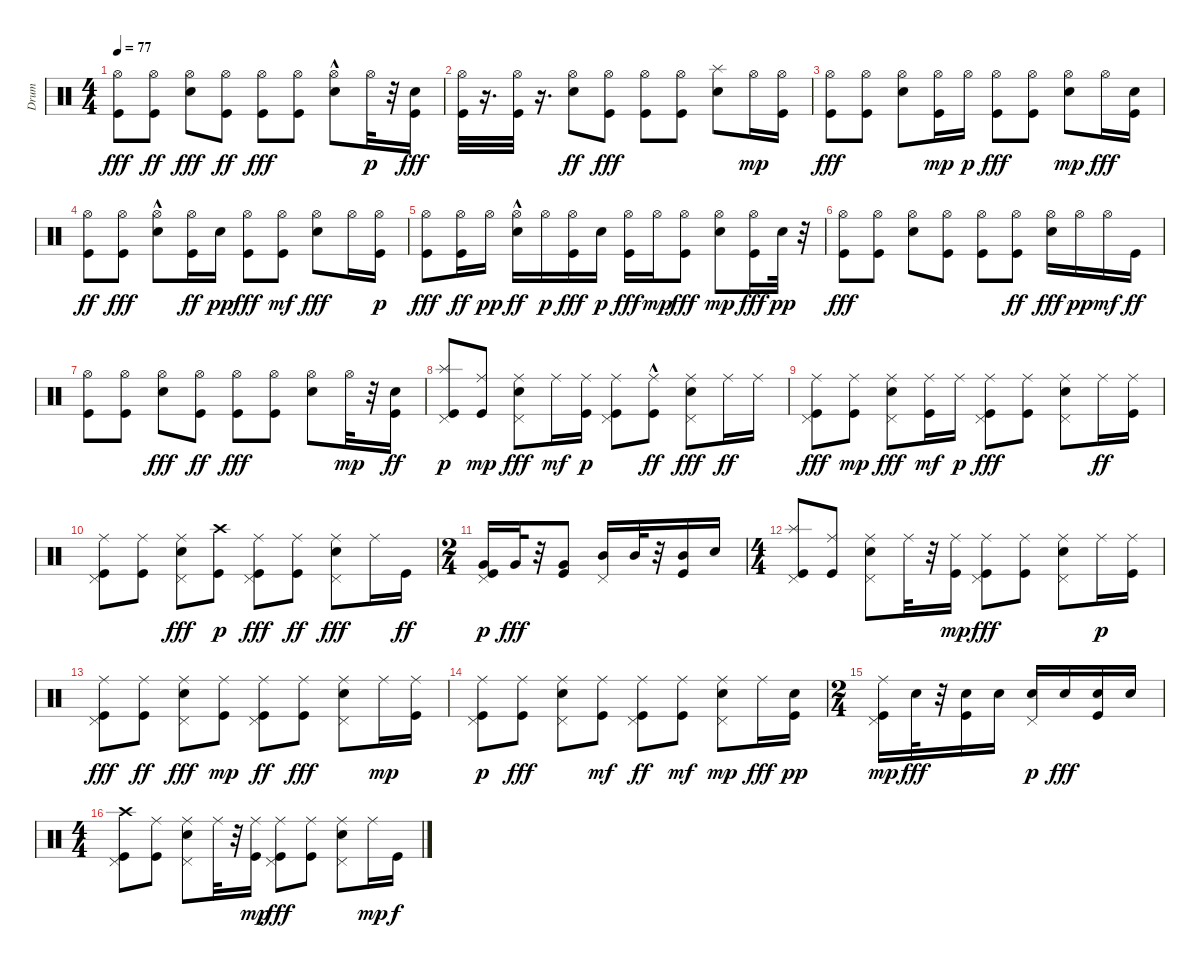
\track ("Drum" "Drum") {instrument percussion}
\staff {score}
\articulation defaults
\ts (4 4)
\tempo 77
\clef neutral
\ks c
("Kick (hit)" "Hi-Hat (open)").8{dy fff} ("Kick (hit)" "Hi-Hat (open)").8{dy ff} ("Snare (hit) 2" "Hi-Hat (open)").8{dy fff} ("Kick (hit)" "Hi-Hat (open)").8{dy ff} ("Kick (hit)" "Hi-Hat (open)").8{dy fff} ("Kick (hit)" "Hi-Hat (open)").8 ("Snare (hit) 2"{hac} "Hi-Hat (open)").8 "Hi-Hat (open)".32{dy p} r.32 ("Kick (hit)" "Snare (hit) 2").16{dy fff} |
("Kick (hit)" "Hi-Hat (open)").32 r.16{d} ("Kick (hit)" "Hi-Hat (open)").32 r.16{d} ("Snare (hit) 2" "Hi-Hat (open)").8{dy ff} ("Kick (hit)" "Hi-Hat (open)").8{dy fff} ("Kick (hit)" "Hi-Hat (open)").8 ("Kick (hit)" "Hi-Hat (open)").8 ("Snare (hit) 2" "Splash (hit)").8 "Hi-Hat (open)".16{dy mp} ("Kick (hit)" "Hi-Hat (open)").16 |
("Kick (hit)" "Hi-Hat (open)").8{dy fff} ("Kick (hit)" "Hi-Hat (open)").8 ("Snare (hit) 2" "Hi-Hat (open)").8 ("Kick (hit)" "Hi-Hat (open)").16{dy mp} "Hi-Hat (open)".16{dy p} ("Kick (hit)" "Hi-Hat (open)").8{dy fff} ("Kick (hit)" "Hi-Hat (open)").8 ("Snare (hit) 2" "Hi-Hat (open)").8{dy mp} "Hi-Hat (open)".16{dy fff} ("Kick (hit)" "Snare (hit) 2").16 |
("Kick (hit)" "Hi-Hat (open)").8{dy ff} ("Kick (hit)" "Hi-Hat (open)").8{dy fff} ("Snare (hit) 2"{hac} "Hi-Hat (open)").8 ("Kick (hit)" "Hi-Hat (open)").16{dy ff} "Snare (hit) 2".16{dy pp} ("Kick (hit)" "Hi-Hat (open)").8{dy fff} ("Kick (hit)" "Hi-Hat (open)").8{dy mf} ("Snare (hit) 2" "Hi-Hat (open)").8{dy fff} "Hi-Hat (open)".16 ("Kick (hit)" "Hi-Hat (open)").16{dy p} |
("Kick (hit)" "Hi-Hat (open)").8{dy fff} ("Kick (hit)" "Hi-Hat (open)").16{dy ff} "Hi-Hat (open)".16{dy pp} ("Snare (hit) 2"{hac} "Hi-Hat (open)").16{dy ff} "Hi-Hat (open)".16{dy p} ("Kick (hit)" "Hi-Hat (open)").16{dy fff} "Snare (hit) 2".16{dy p} ("Kick (hit)" "Hi-Hat (open)").16{dy fff} "Hi-Hat (open)".16{dy mp} ("Kick (hit)" "Hi-Hat (open)").8{dy fff} ("Snare (hit) 2" "Hi-Hat (open)").8{dy mp} ("Kick (hit)" "Hi-Hat (open)").16{dy fff} "Snare (hit) 2".32{dy pp} r.32 |
("Kick (hit)" "Hi-Hat (open)").8{dy fff} ("Kick (hit)" "Hi-Hat (open)").8 ("Snare (hit) 2" "Hi-Hat (open)").8 ("Kick (hit)" "Hi-Hat (open)").8 ("Kick (hit)" "Hi-Hat (open)").8 ("Kick (hit)" "Hi-Hat (open)").8{dy ff} ("Snare (hit) 2" "Hi-Hat (open)").16{dy fff} "Hi-Hat (open)".16{dy pp} "Hi-Hat (open)".16{dy mf} "Kick (hit)".16{dy ff} |
("Kick (hit)" "Hi-Hat (open)").8 ("Kick (hit)" "Hi-Hat (open)").8 ("Snare (hit) 2" "Hi-Hat (open)").8{dy fff} ("Kick (hit)" "Hi-Hat (open)").8{dy ff} ("Kick (hit)" "Hi-Hat (open)").8{dy fff} ("Kick (hit)" "Hi-Hat (open)").8 ("Snare (hit) 2" "Hi-Hat (open)").8 "Hi-Hat (open)".32{dy mp} r.32 ("Kick (hit)" "Snare (hit) 2").16{dy ff} |
("Kick (hit)" "Splash (hit)" "Pedal Hi-Hat (hit)").8{dy p} ("Kick (hit)" "Ride (middle)").8{dy mp} ("Ride (middle)" "Pedal Hi-Hat (hit)" "Snare (hit) 2").8{dy fff} "Ride (middle)".16{dy mf} ("Kick (hit)" "Ride (middle)").16{dy p} ("Kick (hit)" "Ride (middle)" "Pedal Hi-Hat (hit)").8 ("Kick (hit)"{hac} "Ride (middle)").8{dy ff} ("Ride (middle)" "Pedal Hi-Hat (hit)" "Snare (hit) 2").8{dy fff} "Ride (middle)".16{dy ff} "Ride (middle)".16 |
("Kick (hit)" "Pedal Hi-Hat (hit)" "Ride (middle)").8{dy fff} ("Kick (hit)" "Ride (middle)").8{dy mp} ("Snare (hit) 2" "Pedal Hi-Hat (hit)" "Ride (middle)").8{dy fff} ("Kick (hit)" "Ride (middle)").16{dy mf} "Ride (middle)".16{dy p} ("Kick (hit)" "Pedal Hi-Hat (hit)" "Ride (middle)").8{dy fff} ("Kick (hit)" "Ride (middle)").8 ("Snare (hit) 2" "Pedal Hi-Hat (hit)" "Ride (middle)").8 "Ride (middle)".16{dy ff} ("Kick (hit)" "Ride (middle)").16 |
("Kick (hit)" "Pedal Hi-Hat (hit)" "Ride (middle)").8 ("Kick (hit)" "Ride (middle)").8 ("Snare (hit) 2" "Pedal Hi-Hat (hit)" "Ride (middle)").8{dy fff} ("Kick (hit)" "Crash high (hit)").8{dy p} ("Kick (hit)" "Pedal Hi-Hat (hit)" "Ride (middle)").8{dy fff} ("Kick (hit)" "Ride (middle)").8{dy ff} ("Snare (hit) 2" "Pedal Hi-Hat (hit)" "Ride (middle)").8{dy fff} "Ride (middle)".16 "Kick (hit)".16{dy ff} |
\ts (2 4)
("Kick (hit)" "Very Low Tom (hit)" "Pedal Hi-Hat (hit)").16{dy p} "Very Low Tom (hit)".32{dy fff} r.32 ("Kick (hit)" "Very Low Tom (hit)").8 ("Pedal Hi-Hat (hit)" "Mid Tom (hit)").16 "Mid Tom (hit)".32 r.32 ("Kick (hit)" "Mid Tom (hit)").16 "Snare (hit) 2".16 |
\ts (4 4)
("Kick (hit)" "Pedal Hi-Hat (hit)" "Splash (hit)").8 ("Kick (hit)" "Ride (middle)").8 ("Snare (hit) 2" "Pedal Hi-Hat (hit)" "Ride (middle)").8 "Ride (middle)".32 r.32 ("Kick (hit)" "Ride (middle)").16{dy mp} ("Kick (hit)" "Pedal Hi-Hat (hit)" "Ride (middle)").8{dy fff} ("Kick (hit)" "Ride (middle)").8 ("Snare (hit) 2" "Pedal Hi-Hat (hit)" "Ride (middle)").8 "Ride (middle)".16{dy p} ("Kick (hit)" "Ride (middle)").16 |
("Kick (hit)" "Pedal Hi-Hat (hit)" "Ride (middle)").8{dy fff} ("Kick (hit)" "Ride (middle)").8{dy ff} ("Snare (hit) 2" "Pedal Hi-Hat (hit)" "Ride (middle)").8{dy fff} ("Kick (hit)" "Ride (middle)").8{dy mp} ("Kick (hit)" "Pedal Hi-Hat (hit)" "Ride (middle)").8{dy ff} ("Kick (hit)" "Ride (middle)").8{dy fff} ("Snare (hit) 2" "Pedal Hi-Hat (hit)" "Ride (middle)").8 "Ride (middle)".16{dy mp} ("Kick (hit)" "Ride (middle)").16 |
("Kick (hit)" "Pedal Hi-Hat (hit)" "Ride (middle)").8{dy p} ("Kick (hit)" "Ride (middle)").8{dy fff} ("Snare (hit) 2" "Pedal Hi-Hat (hit)" "Ride (middle)").8 ("Kick (hit)" "Ride (middle)").8{dy mf} ("Kick (hit)" "Pedal Hi-Hat (hit)" "Ride (middle)").8{dy ff} ("Kick (hit)" "Ride (middle)").8{dy mf} ("Snare (hit) 2" "Pedal Hi-Hat (hit)" "Ride (middle)").8{dy mp} "Ride (middle)".16{dy fff} ("Kick (hit)" "Snare (hit) 2").16{dy pp} |
\ts (2 4)
("Kick (hit)" "Pedal Hi-Hat (hit)" "Ride (middle)").16{dy mp} "Snare (hit) 2".32{dy fff} r.32 ("Kick (hit)" "Snare (hit) 2").16 "Snare (hit) 2".16 ("Snare (hit) 2" "Pedal Hi-Hat (hit)").16{dy p} "Snare (hit) 2".16{dy fff} ("Kick (hit)" "Snare (hit) 2").16 "Snare (hit) 2".16 |
\ts (4 4)
("Kick (hit)" "Pedal Hi-Hat (hit)" "Crash high (hit)").8 ("Kick (hit)" "Ride (middle)").8 ("Snare (hit) 2" "Pedal Hi-Hat (hit)" "Ride (middle)").8 "Ride (middle)".32 r.32 ("Kick (hit)" "Ride (middle)").16{dy mp} ("Kick (hit)" "Pedal Hi-Hat (hit)" "Ride (middle)").8{dy fff} ("Kick (hit)" "Ride (middle)").8 ("Snare (hit) 2" "Pedal Hi-Hat (hit)" "Ride (middle)").8 "Ride (middle)".16{dy mp} "Kick (hit)".16{dy f}
